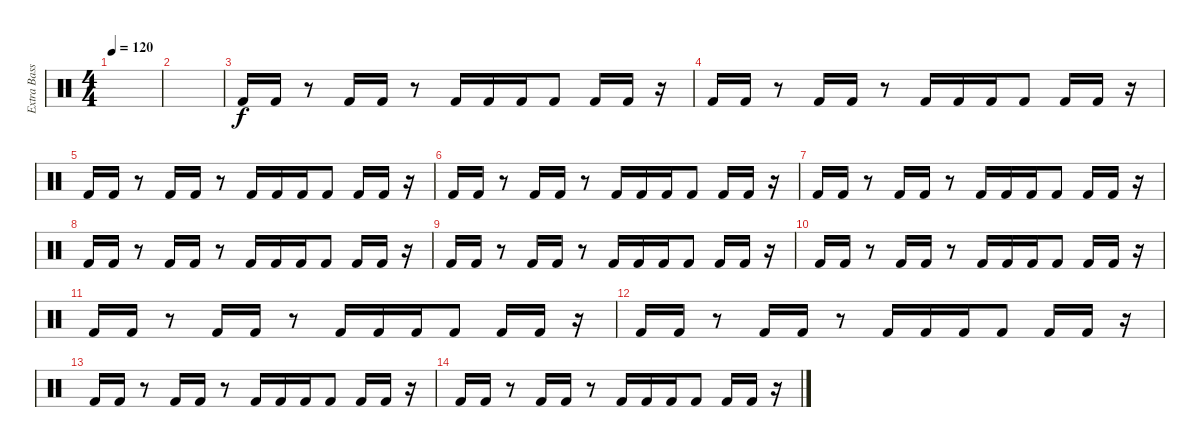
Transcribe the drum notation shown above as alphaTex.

\track ("Extra Bass Drum" "Extra Bass") {instrument percussion}
\staff {score}
\articulation defaults
\ts (4 4)
\tempo 120
\clef neutral
\ks c
|
|
"Kick (hit) 2".16 "Kick (hit) 2".16 r.8 "Kick (hit) 2".16 "Kick (hit) 2".16 r.8 "Kick (hit) 2".16 "Kick (hit) 2".16 "Kick (hit) 2".16 "Kick (hit) 2".8 "Kick (hit) 2".16 "Kick (hit) 2".16 r.16 |
"Kick (hit) 2".16 "Kick (hit) 2".16 r.8 "Kick (hit) 2".16 "Kick (hit) 2".16 r.8 "Kick (hit) 2".16 "Kick (hit) 2".16 "Kick (hit) 2".16 "Kick (hit) 2".8 "Kick (hit) 2".16 "Kick (hit) 2".16 r.16 |
"Kick (hit) 2".16 "Kick (hit) 2".16 r.8 "Kick (hit) 2".16 "Kick (hit) 2".16 r.8 "Kick (hit) 2".16 "Kick (hit) 2".16 "Kick (hit) 2".16 "Kick (hit) 2".8 "Kick (hit) 2".16 "Kick (hit) 2".16 r.16 |
"Kick (hit) 2".16 "Kick (hit) 2".16 r.8 "Kick (hit) 2".16 "Kick (hit) 2".16 r.8 "Kick (hit) 2".16 "Kick (hit) 2".16 "Kick (hit) 2".16 "Kick (hit) 2".8 "Kick (hit) 2".16 "Kick (hit) 2".16 r.16 |
"Kick (hit) 2".16{volume 7} "Kick (hit) 2".16 r.8 "Kick (hit) 2".16 "Kick (hit) 2".16 r.8 "Kick (hit) 2".16 "Kick (hit) 2".16 "Kick (hit) 2".16 "Kick (hit) 2".8 "Kick (hit) 2".16 "Kick (hit) 2".16 r.16 |
"Kick (hit) 2".16 "Kick (hit) 2".16 r.8 "Kick (hit) 2".16 "Kick (hit) 2".16 r.8 "Kick (hit) 2".16 "Kick (hit) 2".16 "Kick (hit) 2".16 "Kick (hit) 2".8 "Kick (hit) 2".16 "Kick (hit) 2".16 r.16 |
"Kick (hit) 2".16 "Kick (hit) 2".16 r.8 "Kick (hit) 2".16 "Kick (hit) 2".16 r.8 "Kick (hit) 2".16 "Kick (hit) 2".16 "Kick (hit) 2".16 "Kick (hit) 2".8 "Kick (hit) 2".16 "Kick (hit) 2".16 r.16 |
"Kick (hit) 2".16 "Kick (hit) 2".16 r.8 "Kick (hit) 2".16 "Kick (hit) 2".16 r.8 "Kick (hit) 2".16 "Kick (hit) 2".16 "Kick (hit) 2".16 "Kick (hit) 2".8 "Kick (hit) 2".16 "Kick (hit) 2".16 r.16 |
"Kick (hit) 2".16{volume 0} "Kick (hit) 2".16 r.8 "Kick (hit) 2".16 "Kick (hit) 2".16 r.8 "Kick (hit) 2".16 "Kick (hit) 2".16 "Kick (hit) 2".16 "Kick (hit) 2".8 "Kick (hit) 2".16 "Kick (hit) 2".16 r.16 |
"Kick (hit) 2".16 "Kick (hit) 2".16 r.8 "Kick (hit) 2".16 "Kick (hit) 2".16 r.8 "Kick (hit) 2".16 "Kick (hit) 2".16 "Kick (hit) 2".16 "Kick (hit) 2".8 "Kick (hit) 2".16 "Kick (hit) 2".16 r.16 |
"Kick (hit) 2".16 "Kick (hit) 2".16 r.8 "Kick (hit) 2".16 "Kick (hit) 2".16 r.8 "Kick (hit) 2".16 "Kick (hit) 2".16 "Kick (hit) 2".16 "Kick (hit) 2".8 "Kick (hit) 2".16 "Kick (hit) 2".16 r.16 |
"Kick (hit) 2".16 "Kick (hit) 2".16 r.8 "Kick (hit) 2".16 "Kick (hit) 2".16 r.8 "Kick (hit) 2".16 "Kick (hit) 2".16 "Kick (hit) 2".16 "Kick (hit) 2".8 "Kick (hit) 2".16 "Kick (hit) 2".16 r.16
